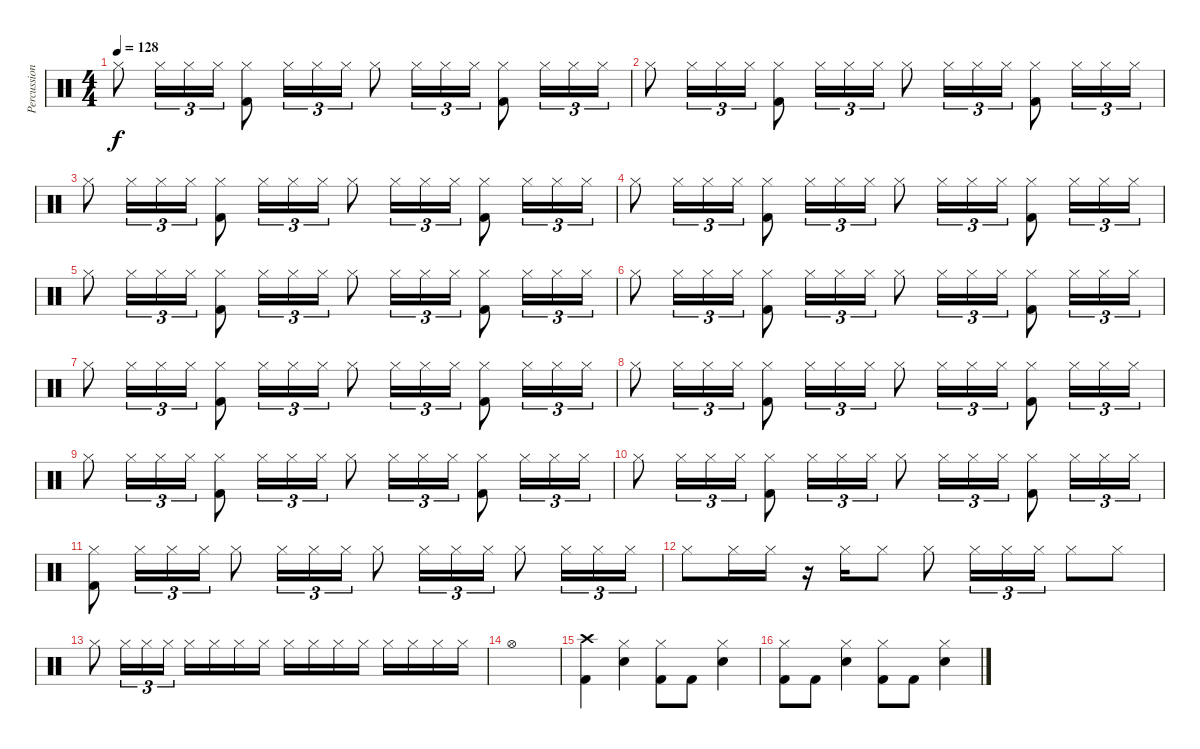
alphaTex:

\track ("Percussion" "Percussion") {instrument percussion}
\staff {score}
\articulation defaults
\ts (4 4)
\tempo 128
\clef neutral
\ks c "Hi-Hat (closed)".8{dy f} "Hi-Hat (closed)".16{tu (3 2)} "Hi-Hat (closed)".16{tu (3 2)} "Hi-Hat (closed)".16{tu (3 2)}
("Kick (hit) 2" "Hi-Hat (closed)").8 "Hi-Hat (closed)".16{tu (3 2)} "Hi-Hat (closed)".16{tu (3 2)} "Hi-Hat (closed)".16{tu (3 2)} "Hi-Hat (closed)".8 "Hi-Hat (closed)".16{tu (3 2)} "Hi-Hat (closed)".16{tu (3 2)} "Hi-Hat (closed)".16{tu (3 2)} ("Kick (hit) 2" "Hi-Hat (closed)").8 "Hi-Hat (closed)".16{tu (3 2)} "Hi-Hat (closed)".16{tu (3 2)} "Hi-Hat (closed)".16{tu (3 2)} |
"Hi-Hat (closed)".8 "Hi-Hat (closed)".16{tu (3 2)} "Hi-Hat (closed)".16{tu (3 2)} "Hi-Hat (closed)".16{tu (3 2)} ("Kick (hit) 2" "Hi-Hat (closed)").8 "Hi-Hat (closed)".16{tu (3 2)} "Hi-Hat (closed)".16{tu (3 2)} "Hi-Hat (closed)".16{tu (3 2)} "Hi-Hat (closed)".8 "Hi-Hat (closed)".16{tu (3 2)} "Hi-Hat (closed)".16{tu (3 2)} "Hi-Hat (closed)".16{tu (3 2)} ("Kick (hit) 2" "Hi-Hat (closed)").8 "Hi-Hat (closed)".16{tu (3 2)} "Hi-Hat (closed)".16{tu (3 2)} "Hi-Hat (closed)".16{tu (3 2)} |
"Hi-Hat (closed)".8 "Hi-Hat (closed)".16{tu (3 2)} "Hi-Hat (closed)".16{tu (3 2)} "Hi-Hat (closed)".16{tu (3 2)} ("Kick (hit) 2" "Hi-Hat (closed)").8 "Hi-Hat (closed)".16{tu (3 2)} "Hi-Hat (closed)".16{tu (3 2)} "Hi-Hat (closed)".16{tu (3 2)} "Hi-Hat (closed)".8 "Hi-Hat (closed)".16{tu (3 2)} "Hi-Hat (closed)".16{tu (3 2)} "Hi-Hat (closed)".16{tu (3 2)} ("Kick (hit) 2" "Hi-Hat (closed)").8 "Hi-Hat (closed)".16{tu (3 2)} "Hi-Hat (closed)".16{tu (3 2)} "Hi-Hat (closed)".16{tu (3 2)} |
"Hi-Hat (closed)".8 "Hi-Hat (closed)".16{tu (3 2)} "Hi-Hat (closed)".16{tu (3 2)} "Hi-Hat (closed)".16{tu (3 2)} ("Kick (hit) 2" "Hi-Hat (closed)").8 "Hi-Hat (closed)".16{tu (3 2)} "Hi-Hat (closed)".16{tu (3 2)} "Hi-Hat (closed)".16{tu (3 2)} "Hi-Hat (closed)".8 "Hi-Hat (closed)".16{tu (3 2)} "Hi-Hat (closed)".16{tu (3 2)} "Hi-Hat (closed)".16{tu (3 2)} ("Kick (hit) 2" "Hi-Hat (closed)").8 "Hi-Hat (closed)".16{tu (3 2)} "Hi-Hat (closed)".16{tu (3 2)} "Hi-Hat (closed)".16{tu (3 2)} |
"Hi-Hat (closed)".8 "Hi-Hat (closed)".16{tu (3 2)} "Hi-Hat (closed)".16{tu (3 2)} "Hi-Hat (closed)".16{tu (3 2)} ("Kick (hit) 2" "Hi-Hat (closed)").8 "Hi-Hat (closed)".16{tu (3 2)} "Hi-Hat (closed)".16{tu (3 2)} "Hi-Hat (closed)".16{tu (3 2)} "Hi-Hat (closed)".8 "Hi-Hat (closed)".16{tu (3 2)} "Hi-Hat (closed)".16{tu (3 2)} "Hi-Hat (closed)".16{tu (3 2)} ("Kick (hit) 2" "Hi-Hat (closed)").8 "Hi-Hat (closed)".16{tu (3 2)} "Hi-Hat (closed)".16{tu (3 2)} "Hi-Hat (closed)".16{tu (3 2)} |
"Hi-Hat (closed)".8 "Hi-Hat (closed)".16{tu (3 2)} "Hi-Hat (closed)".16{tu (3 2)} "Hi-Hat (closed)".16{tu (3 2)} ("Kick (hit) 2" "Hi-Hat (closed)").8 "Hi-Hat (closed)".16{tu (3 2)} "Hi-Hat (closed)".16{tu (3 2)} "Hi-Hat (closed)".16{tu (3 2)} "Hi-Hat (closed)".8 "Hi-Hat (closed)".16{tu (3 2)} "Hi-Hat (closed)".16{tu (3 2)} "Hi-Hat (closed)".16{tu (3 2)} ("Kick (hit) 2" "Hi-Hat (closed)").8 "Hi-Hat (closed)".16{tu (3 2)} "Hi-Hat (closed)".16{tu (3 2)} "Hi-Hat (closed)".16{tu (3 2)} |
"Hi-Hat (closed)".8 "Hi-Hat (closed)".16{tu (3 2)} "Hi-Hat (closed)".16{tu (3 2)} "Hi-Hat (closed)".16{tu (3 2)} ("Kick (hit) 2" "Hi-Hat (closed)").8 "Hi-Hat (closed)".16{tu (3 2)} "Hi-Hat (closed)".16{tu (3 2)} "Hi-Hat (closed)".16{tu (3 2)} "Hi-Hat (closed)".8 "Hi-Hat (closed)".16{tu (3 2)} "Hi-Hat (closed)".16{tu (3 2)} "Hi-Hat (closed)".16{tu (3 2)} ("Kick (hit) 2" "Hi-Hat (closed)").8 "Hi-Hat (closed)".16{tu (3 2)} "Hi-Hat (closed)".16{tu (3 2)} "Hi-Hat (closed)".16{tu (3 2)} |
"Hi-Hat (closed)".8 "Hi-Hat (closed)".16{tu (3 2)} "Hi-Hat (closed)".16{tu (3 2)} "Hi-Hat (closed)".16{tu (3 2)} ("Kick (hit) 2" "Hi-Hat (closed)").8 "Hi-Hat (closed)".16{tu (3 2)} "Hi-Hat (closed)".16{tu (3 2)} "Hi-Hat (closed)".16{tu (3 2)} "Hi-Hat (closed)".8 "Hi-Hat (closed)".16{tu (3 2)} "Hi-Hat (closed)".16{tu (3 2)} "Hi-Hat (closed)".16{tu (3 2)} ("Kick (hit) 2" "Hi-Hat (closed)").8 "Hi-Hat (closed)".16{tu (3 2)} "Hi-Hat (closed)".16{tu (3 2)} "Hi-Hat (closed)".16{tu (3 2)} |
"Hi-Hat (closed)".8 "Hi-Hat (closed)".16{tu (3 2)} "Hi-Hat (closed)".16{tu (3 2)} "Hi-Hat (closed)".16{tu (3 2)} ("Kick (hit) 2" "Hi-Hat (closed)").8 "Hi-Hat (closed)".16{tu (3 2)} "Hi-Hat (closed)".16{tu (3 2)} "Hi-Hat (closed)".16{tu (3 2)} "Hi-Hat (closed)".8 "Hi-Hat (closed)".16{tu (3 2)} "Hi-Hat (closed)".16{tu (3 2)} "Hi-Hat (closed)".16{tu (3 2)} ("Kick (hit) 2" "Hi-Hat (closed)").8 "Hi-Hat (closed)".16{tu (3 2)} "Hi-Hat (closed)".16{tu (3 2)} "Hi-Hat (closed)".16{tu (3 2)} |
"Hi-Hat (closed)".8 "Hi-Hat (closed)".16{tu (3 2)} "Hi-Hat (closed)".16{tu (3 2)} "Hi-Hat (closed)".16{tu (3 2)} ("Kick (hit) 2" "Hi-Hat (closed)").8 "Hi-Hat (closed)".16{tu (3 2)} "Hi-Hat (closed)".16{tu (3 2)} "Hi-Hat (closed)".16{tu (3 2)} "Hi-Hat (closed)".8 "Hi-Hat (closed)".16{tu (3 2)} "Hi-Hat (closed)".16{tu (3 2)} "Hi-Hat (closed)".16{tu (3 2)} ("Kick (hit) 2" "Hi-Hat (closed)").8 "Hi-Hat (closed)".16{tu (3 2)} "Hi-Hat (closed)".16{tu (3 2)} "Hi-Hat (closed)".16{tu (3 2)} |
("Kick (hit) 2" "Hi-Hat (closed)").8 "Hi-Hat (closed)".16{tu (3 2)} "Hi-Hat (closed)".16{tu (3 2)} "Hi-Hat (closed)".16{tu (3 2)} "Hi-Hat (closed)".8 "Hi-Hat (closed)".16{tu (3 2)} "Hi-Hat (closed)".16{tu (3 2)} "Hi-Hat (closed)".16{tu (3 2)} "Hi-Hat (closed)".8 "Hi-Hat (closed)".16{tu (3 2)} "Hi-Hat (closed)".16{tu (3 2)} "Hi-Hat (closed)".16{tu (3 2)} "Hi-Hat (closed)".8 "Hi-Hat (closed)".16{tu (3 2)} "Hi-Hat (closed)".16{tu (3 2)} "Hi-Hat (closed)".16{tu (3 2)} |
"Hi-Hat (closed)".8 "Hi-Hat (closed)".16 "Hi-Hat (closed)".16 r.16 "Hi-Hat (closed)".16 "Hi-Hat (closed)".8 "Hi-Hat (closed)".8 "Hi-Hat (closed)".16{tu (3 2)} "Hi-Hat (closed)".16{tu (3 2)} "Hi-Hat (closed)".16{tu (3 2)} "Hi-Hat (closed)".8 "Hi-Hat (closed)".8 |
"Hi-Hat (closed)".8 "Hi-Hat (closed)".16{tu (3 2)} "Hi-Hat (closed)".16{tu (3 2)} "Hi-Hat (closed)".16{tu (3 2)} "Hi-Hat (closed)".16 "Hi-Hat (closed)".16 "Hi-Hat (closed)".16 "Hi-Hat (closed)".16 "Hi-Hat (closed)".16 "Hi-Hat (closed)".16 "Hi-Hat (closed)".16 "Hi-Hat (closed)".16 "Hi-Hat (closed)".16 "Hi-Hat (closed)".16 "Hi-Hat (closed)".16 "Hi-Hat (closed)".16 |
"Hi-Hat (open)".1 |
("Kick (hit) 2" "Crash high (hit)").4 ("Snare (hit) 2" "Hi-Hat (closed)").4 ("Kick (hit) 2" "Hi-Hat (closed)").8 "Kick (hit) 2".8 ("Snare (hit) 2" "Hi-Hat (closed)").4 |
("Kick (hit) 2" "Hi-Hat (closed)").8 "Kick (hit) 2".8 ("Snare (hit) 2" "Hi-Hat (closed)").4 ("Kick (hit) 2" "Hi-Hat (closed)").8 "Kick (hit) 2".8 ("Snare (hit) 2" "Hi-Hat (closed)").4
